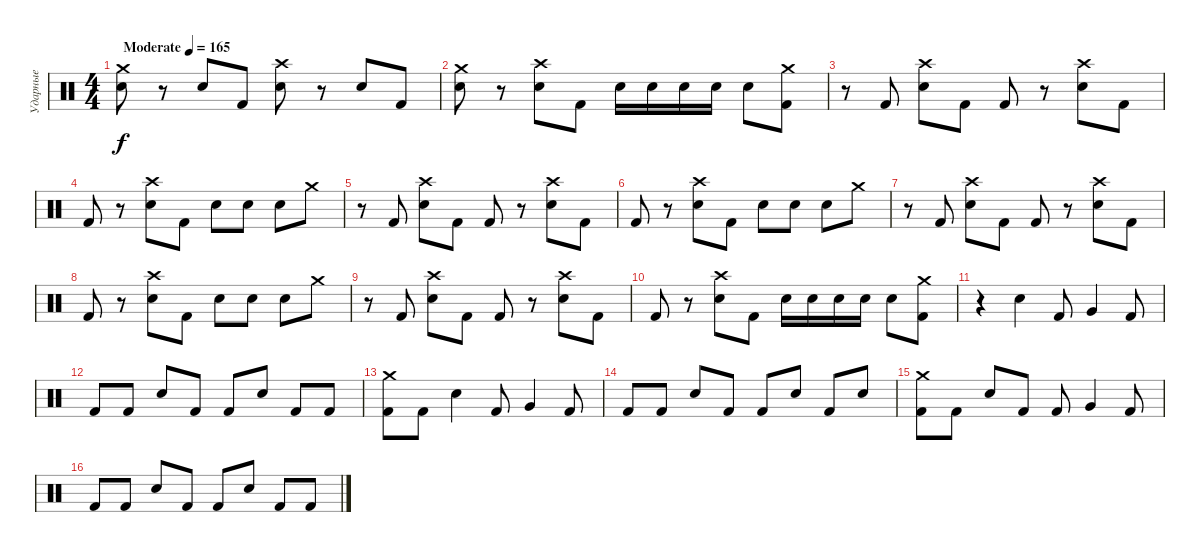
\track ("Ударные" "Ударные") {instrument percussion}
\staff {score}
\articulation defaults
\ts (4 4)
\tempo (165 "Moderate")
\clef neutral
\ks c
("Crash medium (hit)" "Snare (hit) 2").8{dy f} r.8 "Snare (hit) 2".8 "Kick (hit) 2".8 ("Crash high (hit)" "Snare (hit) 2").8 r.8 "Snare (hit) 2".8 "Kick (hit) 2".8 |
("Crash medium (hit)" "Snare (hit) 2").8 r.8 ("Crash high (hit)" "Snare (hit) 2").8 "Kick (hit) 2".8 "Snare (hit) 2".16 "Snare (hit) 2".16 "Snare (hit) 2".16 "Snare (hit) 2".16 "Snare (hit) 2".8 ("Crash medium (hit)" "Kick (hit) 2").8 |
r.8 "Kick (hit) 2".8 ("Crash high (hit)" "Snare (hit) 2").8 "Kick (hit) 2".8 "Kick (hit) 2".8 r.8 ("Crash high (hit)" "Snare (hit) 2").8 "Kick (hit) 2".8 |
"Kick (hit) 2".8 r.8 ("Crash high (hit)" "Snare (hit) 2").8 "Kick (hit) 2".8 "Snare (hit) 2".8 "Snare (hit) 2".8 "Snare (hit) 2".8 "Crash medium (hit)".8 |
r.8 "Kick (hit) 2".8 ("Crash high (hit)" "Snare (hit) 2").8 "Kick (hit) 2".8 "Kick (hit) 2".8 r.8 ("Crash high (hit)" "Snare (hit) 2").8 "Kick (hit) 2".8 |
"Kick (hit) 2".8 r.8 ("Crash high (hit)" "Snare (hit) 2").8 "Kick (hit) 2".8 "Snare (hit) 2".8 "Snare (hit) 2".8 "Snare (hit) 2".8 "Crash medium (hit)".8 |
r.8 "Kick (hit) 2".8 ("Crash high (hit)" "Snare (hit) 2").8 "Kick (hit) 2".8 "Kick (hit) 2".8 r.8 ("Crash high (hit)" "Snare (hit) 2").8 "Kick (hit) 2".8 |
"Kick (hit) 2".8 r.8 ("Crash high (hit)" "Snare (hit) 2").8 "Kick (hit) 2".8 "Snare (hit) 2".8 "Snare (hit) 2".8 "Snare (hit) 2".8 "Crash medium (hit)".8 |
r.8 "Kick (hit) 2".8 ("Crash high (hit)" "Snare (hit) 2").8 "Kick (hit) 2".8 "Kick (hit) 2".8 r.8 ("Crash high (hit)" "Snare (hit) 2").8 "Kick (hit) 2".8 |
"Kick (hit) 2".8 r.8 ("Crash high (hit)" "Snare (hit) 2").8 "Kick (hit) 2".8 "Snare (hit) 2".16 "Snare (hit) 2".16 "Snare (hit) 2".16 "Snare (hit) 2".16 "Snare (hit) 2".8 ("Crash medium (hit)" "Kick (hit) 2").8 |
r.4 "Snare (hit) 2".4 "Kick (hit) 2".8 "Very Low Tom (hit)".4 "Kick (hit) 2".8 |
"Kick (hit) 2".8 "Kick (hit) 2".8 "Snare (hit) 2".8 "Kick (hit) 2".8 "Kick (hit) 2".8 "Snare (hit) 2".8 "Kick (hit) 2".8 "Kick (hit) 2".8 |
("Crash medium (hit)" "Kick (hit) 2").8 "Kick (hit) 2".8 "Snare (hit) 2".4 "Kick (hit) 2".8 "Very Low Tom (hit)".4 "Kick (hit) 2".8 |
"Kick (hit) 2".8 "Kick (hit) 2".8 "Snare (hit) 2".8 "Kick (hit) 2".8 "Kick (hit) 2".8 "Snare (hit) 2".8 "Kick (hit) 2".8 "Snare (hit) 2".8 |
("Crash medium (hit)" "Kick (hit) 2").8 "Kick (hit) 2".8 "Snare (hit) 2".8 "Kick (hit) 2".8 "Kick (hit) 2".8 "Very Low Tom (hit)".4 "Kick (hit) 2".8 |
"Kick (hit) 2".8 "Kick (hit) 2".8 "Snare (hit) 2".8 "Kick (hit) 2".8 "Kick (hit) 2".8 "Snare (hit) 2".8 "Kick (hit) 2".8 "Kick (hit) 2".8
